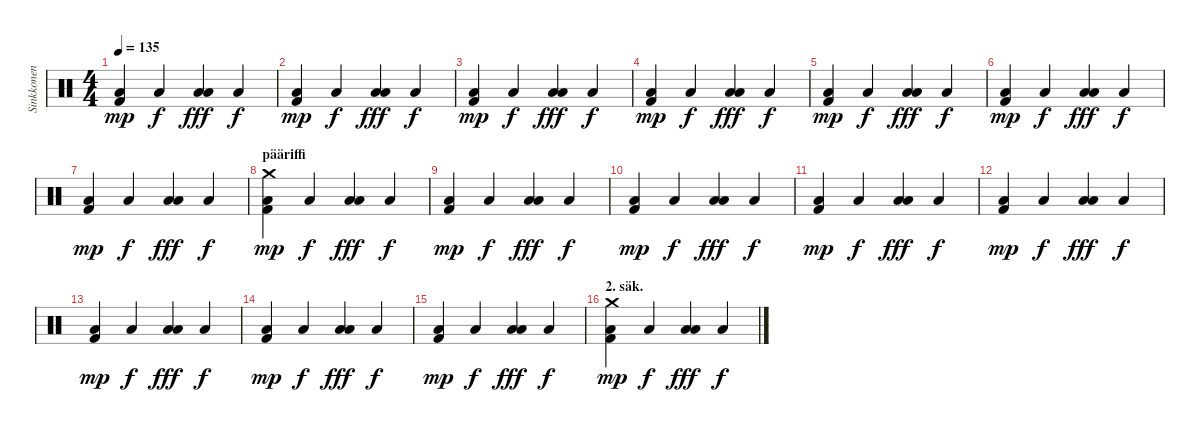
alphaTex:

\track ("Sinkkonen" "Sinkkonen") {instrument percussion}
\staff {score}
\articulation defaults
\ts (4 4)
\tempo 135
\clef neutral
\ks c
("Kick (hit) 2" "Low Floor Tom (hit)").4{dy mp} "Low Floor Tom (hit)".4{dy f} ("Low Floor Tom (hit)" "Low Floor Tom (hit)").4{dy fff} "Low Floor Tom (hit)".4{dy f} |
("Kick (hit) 2" "Low Floor Tom (hit)").4{dy mp} "Low Floor Tom (hit)".4{dy f} ("Low Floor Tom (hit)" "Low Floor Tom (hit)").4{dy fff} "Low Floor Tom (hit)".4{dy f} |
("Kick (hit) 2" "Low Floor Tom (hit)").4{dy mp} "Low Floor Tom (hit)".4{dy f} ("Low Floor Tom (hit)" "Low Floor Tom (hit)").4{dy fff} "Low Floor Tom (hit)".4{dy f} |
("Kick (hit) 2" "Low Floor Tom (hit)").4{dy mp} "Low Floor Tom (hit)".4{dy f} ("Low Floor Tom (hit)" "Low Floor Tom (hit)").4{dy fff} "Low Floor Tom (hit)".4{dy f} |
("Kick (hit) 2" "Low Floor Tom (hit)").4{dy mp} "Low Floor Tom (hit)".4{dy f} ("Low Floor Tom (hit)" "Low Floor Tom (hit)").4{dy fff} "Low Floor Tom (hit)".4{dy f} |
("Kick (hit) 2" "Low Floor Tom (hit)").4{dy mp} "Low Floor Tom (hit)".4{dy f} ("Low Floor Tom (hit)" "Low Floor Tom (hit)").4{dy fff} "Low Floor Tom (hit)".4{dy f} |
("Kick (hit) 2" "Low Floor Tom (hit)").4{dy mp} "Low Floor Tom (hit)".4{dy f} ("Low Floor Tom (hit)" "Low Floor Tom (hit)").4{dy fff} "Low Floor Tom (hit)".4{dy f} |
\section ("" "pääriffi")
("Kick (hit) 2" "Crash medium (hit)" "Low Floor Tom (hit)").4{dy mp} "Low Floor Tom (hit)".4{dy f} ("Low Floor Tom (hit)" "Low Floor Tom (hit)").4{dy fff} "Low Floor Tom (hit)".4{dy f} |
("Kick (hit) 2" "Low Floor Tom (hit)").4{dy mp} "Low Floor Tom (hit)".4{dy f} ("Low Floor Tom (hit)" "Low Floor Tom (hit)").4{dy fff} "Low Floor Tom (hit)".4{dy f} |
("Kick (hit) 2" "Low Floor Tom (hit)").4{dy mp} "Low Floor Tom (hit)".4{dy f} ("Low Floor Tom (hit)" "Low Floor Tom (hit)").4{dy fff} "Low Floor Tom (hit)".4{dy f} |
("Kick (hit) 2" "Low Floor Tom (hit)").4{dy mp} "Low Floor Tom (hit)".4{dy f} ("Low Floor Tom (hit)" "Low Floor Tom (hit)").4{dy fff} "Low Floor Tom (hit)".4{dy f} |
("Kick (hit) 2" "Low Floor Tom (hit)").4{dy mp} "Low Floor Tom (hit)".4{dy f} ("Low Floor Tom (hit)" "Low Floor Tom (hit)").4{dy fff} "Low Floor Tom (hit)".4{dy f} |
("Kick (hit) 2" "Low Floor Tom (hit)").4{dy mp} "Low Floor Tom (hit)".4{dy f} ("Low Floor Tom (hit)" "Low Floor Tom (hit)").4{dy fff} "Low Floor Tom (hit)".4{dy f} |
("Kick (hit) 2" "Low Floor Tom (hit)").4{dy mp} "Low Floor Tom (hit)".4{dy f} ("Low Floor Tom (hit)" "Low Floor Tom (hit)").4{dy fff} "Low Floor Tom (hit)".4{dy f} |
("Kick (hit) 2" "Low Floor Tom (hit)").4{dy mp} "Low Floor Tom (hit)".4{dy f} ("Low Floor Tom (hit)" "Low Floor Tom (hit)").4{dy fff} "Low Floor Tom (hit)".4{dy f} |
\section ("" "2. säk.")
("Kick (hit) 2" "Crash medium (hit)" "Low Floor Tom (hit)").4{dy mp} "Low Floor Tom (hit)".4{dy f} ("Low Floor Tom (hit)" "Low Floor Tom (hit)").4{dy fff} "Low Floor Tom (hit)".4{dy f}
